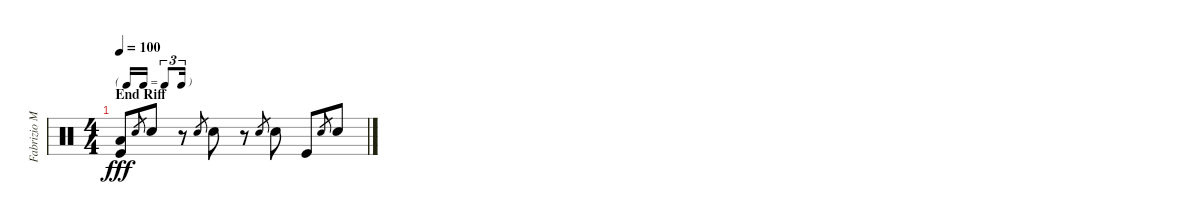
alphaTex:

\track ("Fabrizio Moretti (Drum)" "Fabrizio M") {instrument percussion}
\staff {score}
\articulation defaults
\ts (4 4)
\tf triplet16th
\section ("" "End Riff")
\tempo 100
\clef neutral
\ks c
("Low Floor Tom (hit)" "Kick (hit)").8{dy fff} "Snare (hit) 2".8{gr} "Snare (hit) 2".8 r.8 "Snare (hit) 2".8{gr} "Snare (hit) 2".8 r.8 "Snare (hit) 2".8{gr} "Snare (hit) 2".8 "Kick (hit)".8 "Snare (hit) 2".8{gr} "Snare (hit) 2".8
